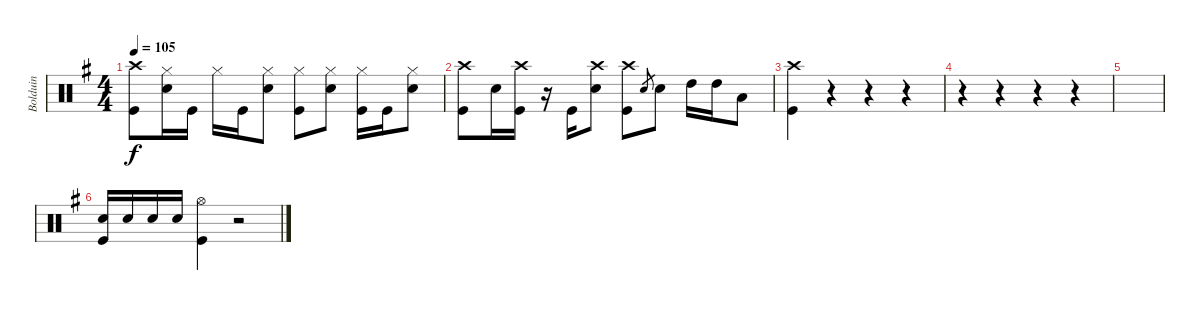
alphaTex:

\track ("Bolduin" "Bolduin") {instrument percussion}
\staff {score}
\articulation defaults
\ts (4 4)
\tempo 105
\clef neutral
\ks eminor
("Kick (hit)" "Crash high (hit)").8{dy f} ("Hi-Hat (closed)" "Snare (hit) 2").16 "Kick (hit)".16 "Hi-Hat (closed)".16 "Kick (hit)".16 ("Snare (hit) 2" "Hi-Hat (closed)").8 ("Kick (hit)" "Hi-Hat (closed)").8 ("Snare (hit) 2" "Hi-Hat (closed)").8 ("Kick (hit)" "Hi-Hat (closed)").16 "Kick (hit)".16 ("Hi-Hat (closed)" "Snare (hit) 2").8 |
("Kick (hit)" "Crash high (hit)").8 "Snare (hit) 2".16 ("Crash high (hit)" "Kick (hit)").16 r.16 "Kick (hit)".16 ("Snare (hit) 2" "Crash high (hit)").8 ("Kick (hit)" "Crash high (hit)").8 "Snare (hit) 2".8{gr} "Snare (hit) 2".8 "High Tom (hit)".16 "High Tom (hit)".16 "Low Tom (hit)".8 |
("Kick (hit)" "Crash high (hit)").4 r.4 r.4 r.4 |
r.4 r.4 r.4 r.4 |
|
("Snare (hit) 2" "Kick (hit)").16 "Snare (hit) 2".16 "Snare (hit) 2".16 "Snare (hit) 2".16 ("Kick (hit)" "Hi-Hat (open)").4 r.2
